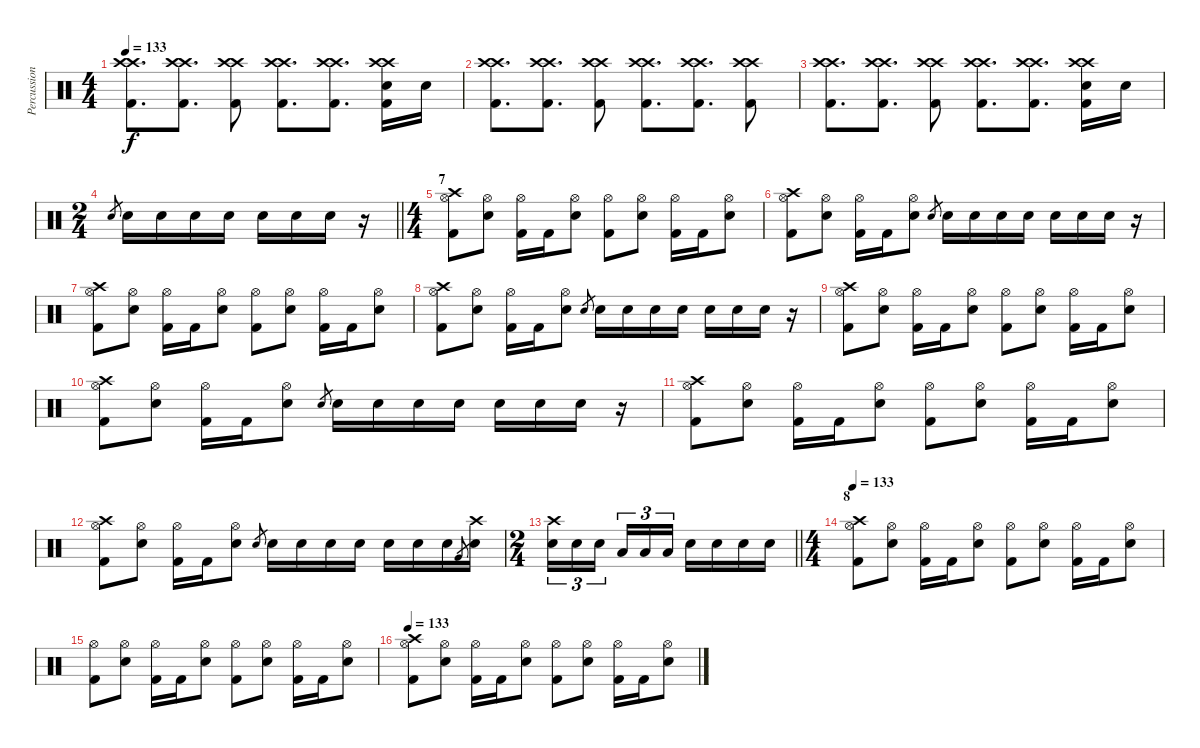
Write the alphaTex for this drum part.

\track ("Percussion" "Percussion") {instrument percussion}
\staff {score}
\articulation defaults
\ts (4 4)
\tempo 133
\clef neutral
\ks c
("Crash high (hit)" "Crash high (hit)" "Kick (hit) 2").8{d dy f} ("Crash high (hit)" "Crash high (hit)" "Kick (hit) 2").8{d} ("Crash high (hit)" "Crash high (hit)" "Kick (hit) 2").8 ("Crash high (hit)" "Crash high (hit)" "Kick (hit) 2").8{d} ("Crash high (hit)" "Crash high (hit)" "Kick (hit) 2").8{d} ("Crash high (hit)" "Crash high (hit)" "Snare (hit) 2" "Kick (hit) 2").16 "Snare (hit) 2".16 |
("Crash high (hit)" "Crash high (hit)" "Kick (hit) 2").8{d} ("Crash high (hit)" "Crash high (hit)" "Kick (hit) 2").8{d} ("Crash high (hit)" "Crash high (hit)" "Kick (hit) 2").8 ("Crash high (hit)" "Crash high (hit)" "Kick (hit) 2").8{d} ("Crash high (hit)" "Crash high (hit)" "Kick (hit) 2").8{d} ("Crash high (hit)" "Crash high (hit)" "Kick (hit) 2").8 |
("Crash high (hit)" "Crash high (hit)" "Kick (hit) 2").8{d} ("Crash high (hit)" "Crash high (hit)" "Kick (hit) 2").8{d} ("Crash high (hit)" "Crash high (hit)" "Kick (hit) 2").8 ("Crash high (hit)" "Crash high (hit)" "Kick (hit) 2").8{d} ("Crash high (hit)" "Crash high (hit)" "Kick (hit) 2").8{d} ("Crash high (hit)" "Crash high (hit)" "Snare (hit) 2" "Kick (hit) 2").16 "Snare (hit) 2".16 |
\ts (2 4)
\barLineRight lightlight "Snare (hit) 2".8{gr} "Snare (hit) 2".16 "Snare (hit) 2".16 "Snare (hit) 2".16 "Snare (hit) 2".16 "Snare (hit) 2".16 "Snare (hit) 2".16 "Snare (hit) 2".16
r.16 |
\ts (4 4)
\section ("" "7")
("Crash high (hit)" "Hi-Hat (open)" "Kick (hit) 2").8 ("Hi-Hat (open)" "Snare (hit) 2").8 ("Hi-Hat (open)" "Kick (hit) 2").16 "Kick (hit) 2".16 ("Hi-Hat (open)" "Snare (hit) 2").8 ("Hi-Hat (open)" "Kick (hit) 2").8 ("Hi-Hat (open)" "Snare (hit) 2").8 ("Hi-Hat (open)" "Kick (hit) 2").16 "Kick (hit) 2".16 ("Hi-Hat (open)" "Snare (hit) 2").8 |
("Crash high (hit)" "Hi-Hat (open)" "Kick (hit) 2").8 ("Hi-Hat (open)" "Snare (hit) 2").8 ("Hi-Hat (open)" "Kick (hit) 2").16 "Kick (hit) 2".16 ("Hi-Hat (open)" "Snare (hit) 2").8 "Snare (hit) 2".8{gr} "Snare (hit) 2".16 "Snare (hit) 2".16 "Snare (hit) 2".16 "Snare (hit) 2".16 "Snare (hit) 2".16 "Snare (hit) 2".16 "Snare (hit) 2".16 r.16 |
("Crash high (hit)" "Hi-Hat (open)" "Kick (hit) 2").8 ("Hi-Hat (open)" "Snare (hit) 2").8 ("Hi-Hat (open)" "Kick (hit) 2").16 "Kick (hit) 2".16 ("Hi-Hat (open)" "Snare (hit) 2").8 ("Hi-Hat (open)" "Kick (hit) 2").8 ("Hi-Hat (open)" "Snare (hit) 2").8 ("Hi-Hat (open)" "Kick (hit) 2").16 "Kick (hit) 2".16 ("Hi-Hat (open)" "Snare (hit) 2").8 |
("Crash high (hit)" "Hi-Hat (open)" "Kick (hit) 2").8 ("Hi-Hat (open)" "Snare (hit) 2").8 ("Hi-Hat (open)" "Kick (hit) 2").16 "Kick (hit) 2".16 ("Hi-Hat (open)" "Snare (hit) 2").8 "Snare (hit) 2".8{gr} "Snare (hit) 2".16 "Snare (hit) 2".16 "Snare (hit) 2".16 "Snare (hit) 2".16 "Snare (hit) 2".16 "Snare (hit) 2".16 "Snare (hit) 2".16 r.16 |
("Crash high (hit)" "Hi-Hat (open)" "Kick (hit) 2").8 ("Hi-Hat (open)" "Snare (hit) 2").8 ("Hi-Hat (open)" "Kick (hit) 2").16 "Kick (hit) 2".16 ("Hi-Hat (open)" "Snare (hit) 2").8 ("Hi-Hat (open)" "Kick (hit) 2").8 ("Hi-Hat (open)" "Snare (hit) 2").8 ("Hi-Hat (open)" "Kick (hit) 2").16 "Kick (hit) 2".16 ("Hi-Hat (open)" "Snare (hit) 2").8 |
("Crash high (hit)" "Hi-Hat (open)" "Kick (hit) 2").8 ("Hi-Hat (open)" "Snare (hit) 2").8 ("Hi-Hat (open)" "Kick (hit) 2").16 "Kick (hit) 2".16 ("Hi-Hat (open)" "Snare (hit) 2").8 "Snare (hit) 2".8{gr} "Snare (hit) 2".16 "Snare (hit) 2".16 "Snare (hit) 2".16 "Snare (hit) 2".16 "Snare (hit) 2".16 "Snare (hit) 2".16 "Snare (hit) 2".16 r.16 |
("Crash high (hit)" "Hi-Hat (open)" "Kick (hit) 2").8 ("Hi-Hat (open)" "Snare (hit) 2").8 ("Hi-Hat (open)" "Kick (hit) 2").16 "Kick (hit) 2".16 ("Hi-Hat (open)" "Snare (hit) 2").8 ("Hi-Hat (open)" "Kick (hit) 2").8 ("Hi-Hat (open)" "Snare (hit) 2").8 ("Hi-Hat (open)" "Kick (hit) 2").16 "Kick (hit) 2".16 ("Hi-Hat (open)" "Snare (hit) 2").8 |
("Crash high (hit)" "Hi-Hat (open)" "Kick (hit) 2").8 ("Hi-Hat (open)" "Snare (hit) 2").8 ("Hi-Hat (open)" "Kick (hit) 2").16 "Kick (hit) 2".16 ("Hi-Hat (open)" "Snare (hit) 2").8 "Snare (hit) 2".8{gr} "Snare (hit) 2".16 "Snare (hit) 2".16 "Snare (hit) 2".16 "Snare (hit) 2".16 "Snare (hit) 2".16 "Snare (hit) 2".16 "Snare (hit) 2".16 "Very Low Tom (hit)".8{gr} ("Crash high (hit)" "Snare (hit) 2").16 |
\ts (2 4)
\barLineRight lightlight
("Crash high (hit)" "Snare (hit) 2").16{tu (3 2)} "Snare (hit) 2".16{tu (3 2)} "Snare (hit) 2".16{tu (3 2) beam splitsecondary} "Low Tom (hit)".16{tu (3 2)} "Low Tom (hit)".16{tu (3 2)} "Low Tom (hit)".16{tu (3 2)} "Snare (hit) 2".16 "Snare (hit) 2".16 "Snare (hit) 2".16 "Snare (hit) 2".16 |
\ts (4 4)
\section ("" "8")
\tempo 133
("Crash high (hit)" "Hi-Hat (open)" "Kick (hit) 2").8 ("Hi-Hat (open)" "Snare (hit) 2").8 ("Hi-Hat (open)" "Kick (hit) 2").16 "Kick (hit) 2".16 ("Hi-Hat (open)" "Snare (hit) 2").8 ("Hi-Hat (open)" "Kick (hit) 2").8 ("Hi-Hat (open)" "Snare (hit) 2").8 ("Hi-Hat (open)" "Kick (hit) 2").16 "Kick (hit) 2".16 ("Hi-Hat (open)" "Snare (hit) 2").8 |
("Hi-Hat (open)" "Kick (hit) 2").8 ("Hi-Hat (open)" "Snare (hit) 2").8 ("Hi-Hat (open)" "Kick (hit) 2").16 "Kick (hit) 2".16 ("Hi-Hat (open)" "Snare (hit) 2").8 ("Hi-Hat (open)" "Kick (hit) 2").8 ("Hi-Hat (open)" "Snare (hit) 2").8 ("Hi-Hat (open)" "Kick (hit) 2").16 "Kick (hit) 2".16 ("Hi-Hat (open)" "Snare (hit) 2").8 |
\tempo 133
("Crash high (hit)" "Hi-Hat (open)" "Kick (hit) 2").8 ("Hi-Hat (open)" "Snare (hit) 2").8 ("Hi-Hat (open)" "Kick (hit) 2").16 "Kick (hit) 2".16 ("Hi-Hat (open)" "Snare (hit) 2").8 ("Hi-Hat (open)" "Kick (hit) 2").8 ("Hi-Hat (open)" "Snare (hit) 2").8 ("Hi-Hat (open)" "Kick (hit) 2").16 "Kick (hit) 2".16 ("Hi-Hat (open)" "Snare (hit) 2").8
